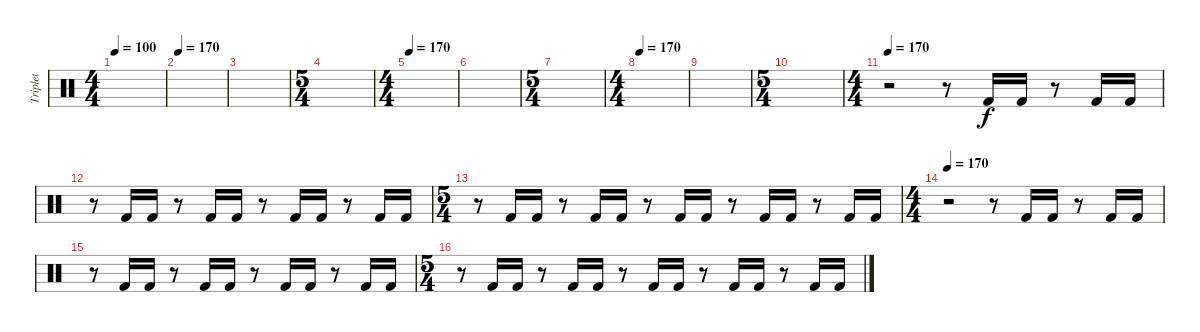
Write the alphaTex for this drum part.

\track ("Triplet" "Triplet") {instrument percussion}
\staff {score}
\articulation defaults
\ts (4 4)
\tempo 100
\clef neutral
\ks c
|
\tempo 170
|
|
\ts (5 4)
|
\ts (4 4)
\tempo 170
|
|
\ts (5 4)
|
\ts (4 4)
\tempo 170
|
|
\ts (5 4)
|
\ts (4 4)
\tempo 170
r.2 r.8 "Kick (hit) 2".16 "Kick (hit) 2".16 r.8 "Kick (hit) 2".16 "Kick (hit) 2".16 |
r.8 "Kick (hit) 2".16 "Kick (hit) 2".16 r.8 "Kick (hit) 2".16 "Kick (hit) 2".16 r.8 "Kick (hit) 2".16 "Kick (hit) 2".16 r.8 "Kick (hit) 2".16 "Kick (hit) 2".16 |
\ts (5 4)
r.8 "Kick (hit) 2".16 "Kick (hit) 2".16 r.8 "Kick (hit) 2".16 "Kick (hit) 2".16 r.8 "Kick (hit) 2".16 "Kick (hit) 2".16 r.8 "Kick (hit) 2".16 "Kick (hit) 2".16 r.8 "Kick (hit) 2".16 "Kick (hit) 2".16 |
\ts (4 4)
\tempo 170
r.2 r.8 "Kick (hit) 2".16 "Kick (hit) 2".16 r.8 "Kick (hit) 2".16 "Kick (hit) 2".16 |
r.8 "Kick (hit) 2".16 "Kick (hit) 2".16 r.8 "Kick (hit) 2".16 "Kick (hit) 2".16 r.8 "Kick (hit) 2".16 "Kick (hit) 2".16 r.8 "Kick (hit) 2".16 "Kick (hit) 2".16 |
\ts (5 4)
r.8 "Kick (hit) 2".16 "Kick (hit) 2".16 r.8 "Kick (hit) 2".16 "Kick (hit) 2".16 r.8 "Kick (hit) 2".16 "Kick (hit) 2".16 r.8 "Kick (hit) 2".16 "Kick (hit) 2".16 r.8 "Kick (hit) 2".16 "Kick (hit) 2".16
